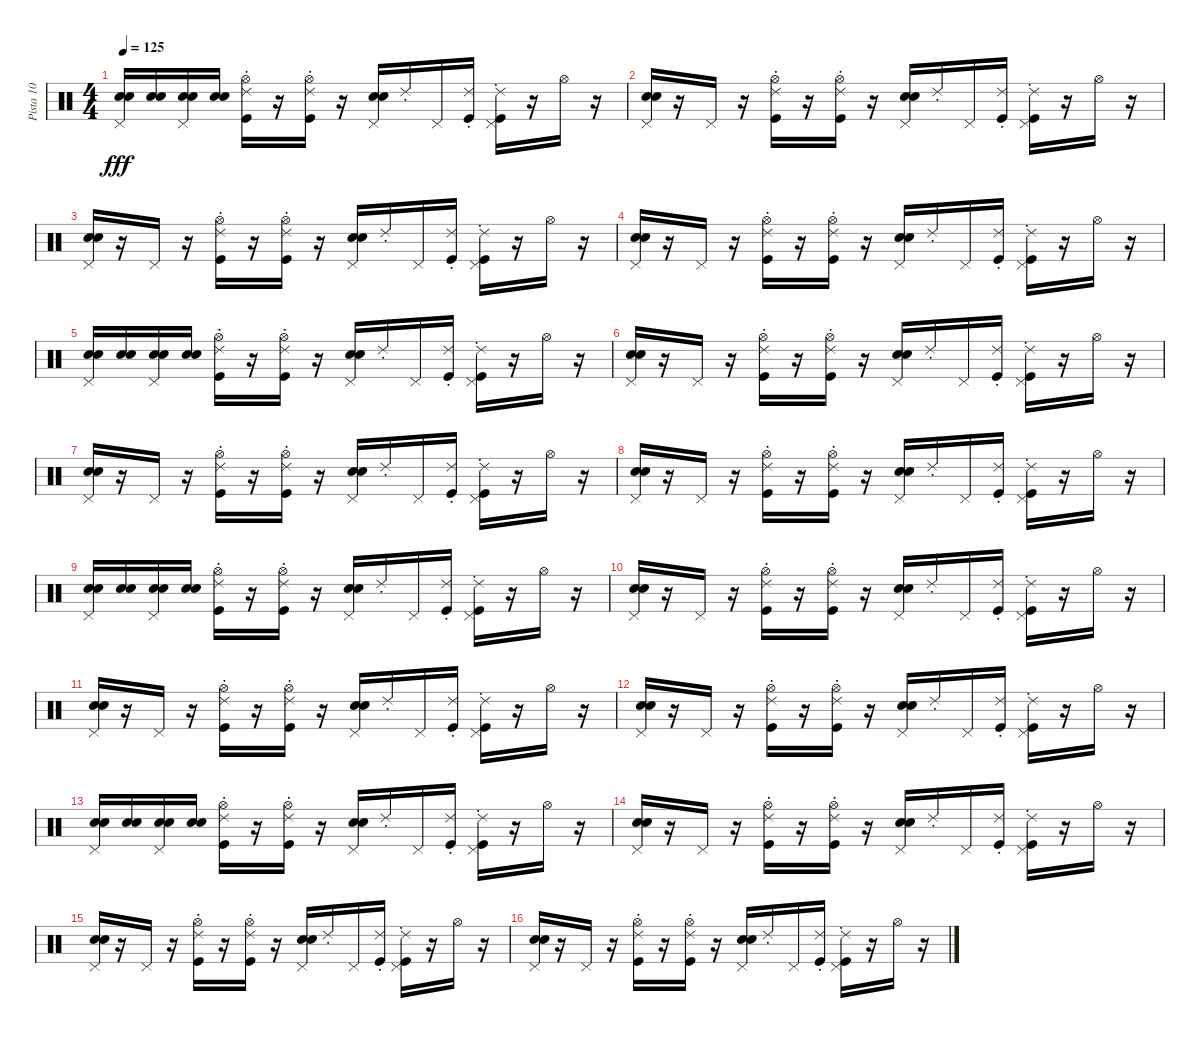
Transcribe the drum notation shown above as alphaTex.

\track ("Pista 10" "Pista 10") {instrument percussion}
\staff {score}
\articulation defaults
\ts (4 4)
\tempo 125
\clef neutral
\ks c
("Pedal Hi-Hat (hit)" "Hand Clap (hit)" "Electric Snare (hit)").16{dy fff} ("Electric Snare (hit)" "Hand Clap (hit)").16 ("Pedal Hi-Hat (hit)" "Hand Clap (hit)" "Electric Snare (hit)").16 ("Hand Clap (hit)" "Electric Snare (hit)").16 ("Hi-Hat (open)" "Kick (hit)" "Ride (choke) 2").16 r.16 ("Kick (hit)" "Ride (choke) 2" "Hi-Hat (open)").16 r.16 ("Electric Snare (hit)" "Pedal Hi-Hat (hit)" "Hand Clap (hit)").16 "Ride (choke) 2".16 "Pedal Hi-Hat (hit)".16 ("Ride (choke) 2" "Kick (hit)").16 ("Ride (choke) 2" "Kick (hit)" "Pedal Hi-Hat (hit)").16 r.16 "Hi-Hat (open)".16 r.16 |
("Electric Snare (hit)" "Pedal Hi-Hat (hit)" "Hand Clap (hit)").16 r.16 "Pedal Hi-Hat (hit)".16 r.16 ("Ride (choke) 2" "Kick (hit)" "Hi-Hat (open)").16 r.16 ("Kick (hit)" "Hi-Hat (open)" "Ride (choke) 2").16 r.16 ("Electric Snare (hit)" "Pedal Hi-Hat (hit)" "Hand Clap (hit)").16 "Ride (choke) 2".16 "Pedal Hi-Hat (hit)".16 ("Ride (choke) 2" "Kick (hit)").16 ("Pedal Hi-Hat (hit)" "Kick (hit)" "Ride (choke) 2").16 r.16 "Hi-Hat (open)".16 r.16 |
("Pedal Hi-Hat (hit)" "Electric Snare (hit)" "Hand Clap (hit)").16 r.16 "Pedal Hi-Hat (hit)".16 r.16 ("Hi-Hat (open)" "Ride (choke) 2" "Kick (hit)").16 r.16 ("Ride (choke) 2" "Kick (hit)" "Hi-Hat (open)").16 r.16 ("Electric Snare (hit)" "Pedal Hi-Hat (hit)" "Hand Clap (hit)").16 "Ride (choke) 2".16 "Pedal Hi-Hat (hit)".16 ("Ride (choke) 2" "Kick (hit)").16 ("Ride (choke) 2" "Kick (hit)" "Pedal Hi-Hat (hit)").16 r.16 "Hi-Hat (open)".16 r.16 |
("Hand Clap (hit)" "Electric Snare (hit)" "Pedal Hi-Hat (hit)").16 r.16 "Pedal Hi-Hat (hit)".16 r.16 ("Kick (hit)" "Ride (choke) 2" "Hi-Hat (open)").16 r.16 ("Ride (choke) 2" "Kick (hit)" "Hi-Hat (open)").16 r.16 ("Pedal Hi-Hat (hit)" "Hand Clap (hit)" "Electric Snare (hit)").16 "Ride (choke) 2".16 "Pedal Hi-Hat (hit)".16 ("Ride (choke) 2" "Kick (hit)").16 ("Pedal Hi-Hat (hit)" "Ride (choke) 2" "Kick (hit)").16 r.16 "Hi-Hat (open)".16 r.16 |
("Pedal Hi-Hat (hit)" "Electric Snare (hit)" "Hand Clap (hit)").16 ("Hand Clap (hit)" "Electric Snare (hit)").16 ("Pedal Hi-Hat (hit)" "Hand Clap (hit)" "Electric Snare (hit)").16 ("Hand Clap (hit)" "Electric Snare (hit)").16 ("Ride (choke) 2" "Hi-Hat (open)" "Kick (hit)").16 r.16 ("Ride (choke) 2" "Hi-Hat (open)" "Kick (hit)").16 r.16 ("Pedal Hi-Hat (hit)" "Electric Snare (hit)" "Hand Clap (hit)").16 "Ride (choke) 2".16 "Pedal Hi-Hat (hit)".16 ("Kick (hit)" "Ride (choke) 2").16 ("Ride (choke) 2" "Pedal Hi-Hat (hit)" "Kick (hit)").16 r.16 "Hi-Hat (open)".16 r.16 |
("Pedal Hi-Hat (hit)" "Hand Clap (hit)" "Electric Snare (hit)").16 r.16 "Pedal Hi-Hat (hit)".16 r.16 ("Kick (hit)" "Hi-Hat (open)" "Ride (choke) 2").16 r.16 ("Hi-Hat (open)" "Ride (choke) 2" "Kick (hit)").16 r.16 ("Hand Clap (hit)" "Pedal Hi-Hat (hit)" "Electric Snare (hit)").16 "Ride (choke) 2".16 "Pedal Hi-Hat (hit)".16 ("Kick (hit)" "Ride (choke) 2").16 ("Pedal Hi-Hat (hit)" "Kick (hit)" "Ride (choke) 2").16 r.16 "Hi-Hat (open)".16 r.16 |
("Electric Snare (hit)" "Hand Clap (hit)" "Pedal Hi-Hat (hit)").16 r.16 "Pedal Hi-Hat (hit)".16 r.16 ("Ride (choke) 2" "Kick (hit)" "Hi-Hat (open)").16 r.16 ("Ride (choke) 2" "Kick (hit)" "Hi-Hat (open)").16 r.16 ("Pedal Hi-Hat (hit)" "Hand Clap (hit)" "Electric Snare (hit)").16 "Ride (choke) 2".16 "Pedal Hi-Hat (hit)".16 ("Kick (hit)" "Ride (choke) 2").16 ("Ride (choke) 2" "Pedal Hi-Hat (hit)" "Kick (hit)").16 r.16 "Hi-Hat (open)".16 r.16 |
("Electric Snare (hit)" "Hand Clap (hit)" "Pedal Hi-Hat (hit)").16 r.16 "Pedal Hi-Hat (hit)".16 r.16 ("Kick (hit)" "Hi-Hat (open)" "Ride (choke) 2").16 r.16 ("Hi-Hat (open)" "Ride (choke) 2" "Kick (hit)").16 r.16 ("Hand Clap (hit)" "Electric Snare (hit)" "Pedal Hi-Hat (hit)").16 "Ride (choke) 2".16 "Pedal Hi-Hat (hit)".16 ("Kick (hit)" "Ride (choke) 2").16 ("Ride (choke) 2" "Pedal Hi-Hat (hit)" "Kick (hit)").16 r.16 "Hi-Hat (open)".16 r.16 |
("Pedal Hi-Hat (hit)" "Hand Clap (hit)" "Electric Snare (hit)").16 ("Electric Snare (hit)" "Hand Clap (hit)").16 ("Pedal Hi-Hat (hit)" "Hand Clap (hit)" "Electric Snare (hit)").16 ("Hand Clap (hit)" "Electric Snare (hit)").16 ("Ride (choke) 2" "Hi-Hat (open)" "Kick (hit)").16 r.16 ("Ride (choke) 2" "Hi-Hat (open)" "Kick (hit)").16 r.16 ("Pedal Hi-Hat (hit)" "Electric Snare (hit)" "Hand Clap (hit)").16 "Ride (choke) 2".16 "Pedal Hi-Hat (hit)".16 ("Kick (hit)" "Ride (choke) 2").16 ("Ride (choke) 2" "Pedal Hi-Hat (hit)" "Kick (hit)").16 r.16 "Hi-Hat (open)".16 r.16 |
("Pedal Hi-Hat (hit)" "Hand Clap (hit)" "Electric Snare (hit)").16 r.16 "Pedal Hi-Hat (hit)".16 r.16 ("Kick (hit)" "Hi-Hat (open)" "Ride (choke) 2").16 r.16 ("Hi-Hat (open)" "Ride (choke) 2" "Kick (hit)").16 r.16 ("Pedal Hi-Hat (hit)" "Electric Snare (hit)" "Hand Clap (hit)").16 "Ride (choke) 2".16 "Pedal Hi-Hat (hit)".16 ("Kick (hit)" "Ride (choke) 2").16 ("Kick (hit)" "Pedal Hi-Hat (hit)" "Ride (choke) 2").16 r.16 "Hi-Hat (open)".16 r.16 |
("Pedal Hi-Hat (hit)" "Electric Snare (hit)" "Hand Clap (hit)").16 r.16 "Pedal Hi-Hat (hit)".16 r.16 ("Ride (choke) 2" "Kick (hit)" "Hi-Hat (open)").16 r.16 ("Ride (choke) 2" "Kick (hit)" "Hi-Hat (open)").16 r.16 ("Hand Clap (hit)" "Pedal Hi-Hat (hit)" "Electric Snare (hit)").16 "Ride (choke) 2".16 "Pedal Hi-Hat (hit)".16 ("Kick (hit)" "Ride (choke) 2").16 ("Pedal Hi-Hat (hit)" "Ride (choke) 2" "Kick (hit)").16 r.16 "Hi-Hat (open)".16 r.16 |
("Hand Clap (hit)" "Electric Snare (hit)" "Pedal Hi-Hat (hit)").16 r.16 "Pedal Hi-Hat (hit)".16 r.16 ("Hi-Hat (open)" "Kick (hit)" "Ride (choke) 2").16 r.16 ("Hi-Hat (open)" "Kick (hit)" "Ride (choke) 2").16 r.16 ("Electric Snare (hit)" "Pedal Hi-Hat (hit)" "Hand Clap (hit)").16 "Ride (choke) 2".16 "Pedal Hi-Hat (hit)".16 ("Ride (choke) 2" "Kick (hit)").16 ("Ride (choke) 2" "Pedal Hi-Hat (hit)" "Kick (hit)").16 r.16 "Hi-Hat (open)".16 r.16 |
("Pedal Hi-Hat (hit)" "Hand Clap (hit)" "Electric Snare (hit)").16 ("Electric Snare (hit)" "Hand Clap (hit)").16 ("Pedal Hi-Hat (hit)" "Hand Clap (hit)" "Electric Snare (hit)").16 ("Hand Clap (hit)" "Electric Snare (hit)").16 ("Ride (choke) 2" "Hi-Hat (open)" "Kick (hit)").16{volume 14} r.16 ("Ride (choke) 2" "Hi-Hat (open)" "Kick (hit)").16{volume 14} r.16 ("Pedal Hi-Hat (hit)" "Electric Snare (hit)" "Hand Clap (hit)").16{volume 14} "Ride (choke) 2".16{volume 14} "Pedal Hi-Hat (hit)".16{volume 14} ("Kick (hit)" "Ride (choke) 2").16{volume 13} ("Ride (choke) 2" "Pedal Hi-Hat (hit)" "Kick (hit)").16{volume 13} r.16 "Hi-Hat (open)".16{volume 13} r.16 |
("Pedal Hi-Hat (hit)" "Hand Clap (hit)" "Electric Snare (hit)").16{volume 12} r.16 "Pedal Hi-Hat (hit)".16{volume 12} r.16 ("Kick (hit)" "Hi-Hat (open)" "Ride (choke) 2").16{volume 12} r.16 ("Kick (hit)" "Hi-Hat (open)" "Ride (choke) 2").16{volume 12} r.16 ("Electric Snare (hit)" "Pedal Hi-Hat (hit)" "Hand Clap (hit)").16{volume 11} "Ride (choke) 2".16{volume 11} "Pedal Hi-Hat (hit)".16{volume 11} ("Ride (choke) 2" "Kick (hit)").16{volume 11} ("Kick (hit)" "Pedal Hi-Hat (hit)" "Ride (choke) 2").16{volume 11} r.16 "Hi-Hat (open)".16{volume 10} r.16 |
("Electric Snare (hit)" "Hand Clap (hit)" "Pedal Hi-Hat (hit)").16{volume 10} r.16 "Pedal Hi-Hat (hit)".16{volume 10} r.16 ("Ride (choke) 2" "Kick (hit)" "Hi-Hat (open)").16{volume 9} r.16 ("Kick (hit)" "Hi-Hat (open)" "Ride (choke) 2").16{volume 9} r.16 ("Electric Snare (hit)" "Hand Clap (hit)" "Pedal Hi-Hat (hit)").16{volume 9} "Ride (choke) 2".16{volume 9} "Pedal Hi-Hat (hit)".16{volume 8} ("Ride (choke) 2" "Kick (hit)").16{volume 8} ("Ride (choke) 2" "Kick (hit)" "Pedal Hi-Hat (hit)").16{volume 8} r.16 "Hi-Hat (open)".16{volume 8} r.16 |
("Pedal Hi-Hat (hit)" "Electric Snare (hit)" "Hand Clap (hit)").16{volume 8} r.16 "Pedal Hi-Hat (hit)".16{volume 7} r.16 ("Kick (hit)" "Hi-Hat (open)" "Ride (choke) 2").16{volume 7} r.16 ("Kick (hit)" "Ride (choke) 2" "Hi-Hat (open)").16{volume 7} r.16 ("Hand Clap (hit)" "Electric Snare (hit)" "Pedal Hi-Hat (hit)").16{volume 6} "Ride (choke) 2".16{volume 6} "Pedal Hi-Hat (hit)".16{volume 6} ("Kick (hit)" "Ride (choke) 2").16{volume 6} ("Kick (hit)" "Ride (choke) 2" "Pedal Hi-Hat (hit)").16{volume 6} r.16 "Hi-Hat (open)".16{volume 5} r.16
